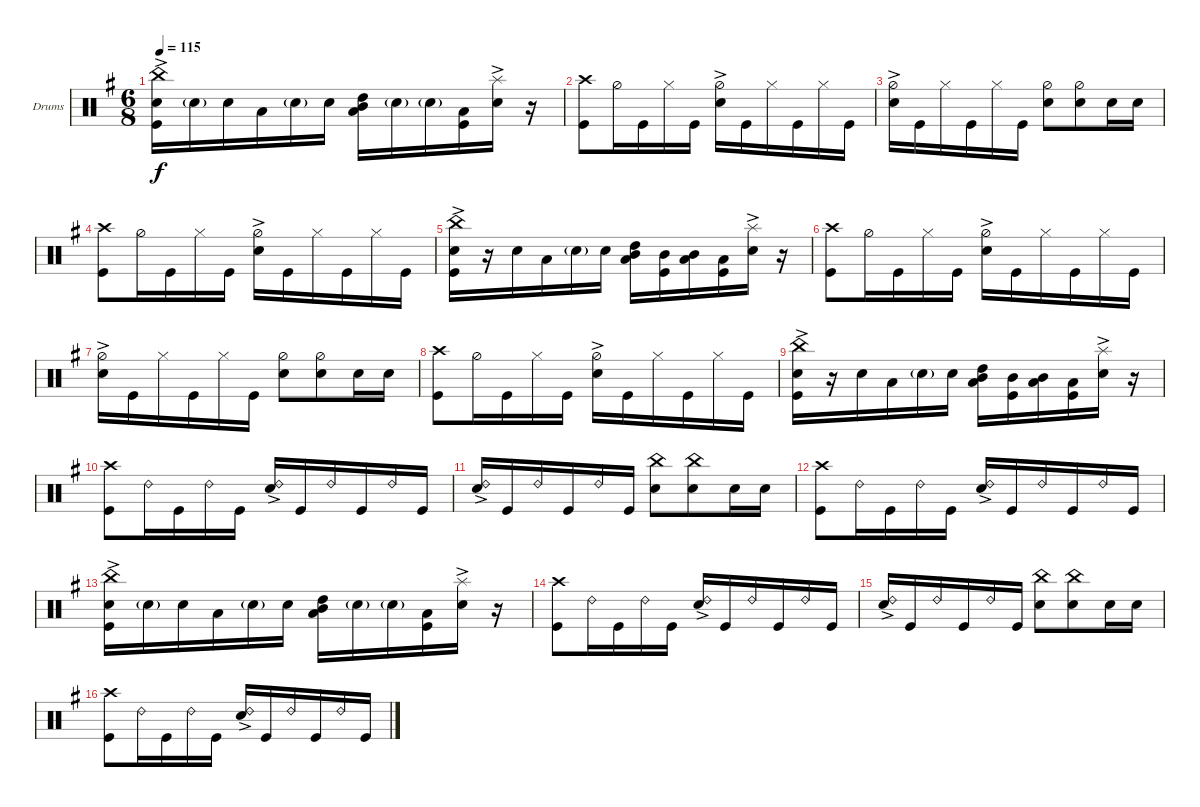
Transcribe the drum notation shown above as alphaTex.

\bracketExtendMode groupsimilarinstruments
\firstSystemTrackNameOrientation horizontal
\otherSystemsTrackNameOrientation horizontal
\track ("Drumkit" "Drums") {instrument percussion}
\staff {score}
\articulation defaults
\ts (6 8)
\tempo 115
\clef neutral
\ks eminor
("Kick (hit)" "Snare (hit) 2"{ac} "China (hit)").16{dy f} "Snare (hit) 2"{g}.16 "Snare (hit) 2".16 "Low Tom (hit)".16 "Snare (hit) 2"{g}.16 "Snare (hit) 2".16 ("High Tom (hit)" "Mid Tom (hit)" "Low Tom (hit)").16 "Snare (hit) 2"{g}.16 "Snare (hit) 2"{g}.16 ("Low Tom (hit)" "Kick (hit)").16 ("Splash (hit)" "Snare (hit) 2"{ac}).16 r.16 |
("Kick (hit)" "Crash high (hit)").8 "Hi-Hat (half)".16 "Kick (hit)".16 "Hi-Hat (closed)".16 "Kick (hit)".16 ("Hi-Hat (half)" "Snare (hit) 2"{ac}).16 "Kick (hit)".16 "Hi-Hat (closed)".16 "Kick (hit)".16 "Hi-Hat (closed)".16 "Kick (hit)".16 |
("Hi-Hat (half)" "Snare (hit) 2"{ac}).16 "Kick (hit)".16 "Hi-Hat (closed)".16 "Kick (hit)".16 "Hi-Hat (closed)".16 "Kick (hit)".16 ("Snare (hit) 2" "Hi-Hat (half)").8 ("Snare (hit) 2" "Hi-Hat (half)").8 "Snare (hit) 2".16 "Snare (hit) 2".16 |
("Kick (hit)" "Crash high (hit)").8 "Hi-Hat (half)".16 "Kick (hit)".16 "Hi-Hat (closed)".16 "Kick (hit)".16 ("Hi-Hat (half)" "Snare (hit) 2"{ac}).16 "Kick (hit)".16 "Hi-Hat (closed)".16 "Kick (hit)".16 "Hi-Hat (closed)".16 "Kick (hit)".16 |
("Kick (hit)" "Snare (hit) 2"{ac} "China (hit)").16 r.16 "Snare (hit) 2".16 "Low Tom (hit)".16 "Snare (hit) 2"{g}.16 "Snare (hit) 2".16 ("High Tom (hit)" "Mid Tom (hit)" "Low Tom (hit)").16 ("Mid Tom (hit)" "Kick (hit)").16 ("Low Tom (hit)" "Mid Tom (hit)").16 ("Low Tom (hit)" "Kick (hit)").16 ("Splash (hit)" "Snare (hit) 2"{ac}).16 r.16 |
("Kick (hit)" "Crash high (hit)").8 "Hi-Hat (half)".16 "Kick (hit)".16 "Hi-Hat (closed)".16 "Kick (hit)".16 ("Hi-Hat (half)" "Snare (hit) 2"{ac}).16 "Kick (hit)".16 "Hi-Hat (closed)".16 "Kick (hit)".16 "Hi-Hat (closed)".16 "Kick (hit)".16 |
("Hi-Hat (half)" "Snare (hit) 2"{ac}).16 "Kick (hit)".16 "Hi-Hat (closed)".16 "Kick (hit)".16 "Hi-Hat (closed)".16 "Kick (hit)".16 ("Snare (hit) 2" "Hi-Hat (half)").8 ("Snare (hit) 2" "Hi-Hat (half)").8 "Snare (hit) 2".16 "Snare (hit) 2".16 |
("Kick (hit)" "Crash high (hit)").8 "Hi-Hat (half)".16 "Kick (hit)".16 "Hi-Hat (closed)".16 "Kick (hit)".16 ("Hi-Hat (half)" "Snare (hit) 2"{ac}).16 "Kick (hit)".16 "Hi-Hat (closed)".16 "Kick (hit)".16 "Hi-Hat (closed)".16 "Kick (hit)".16 |
("Kick (hit)" "Snare (hit) 2"{ac} "China (hit)").16 r.16 "Snare (hit) 2".16 "Low Tom (hit)".16 "Snare (hit) 2"{g}.16 "Snare (hit) 2".16 ("High Tom (hit)" "Mid Tom (hit)" "Low Tom (hit)").16 ("Mid Tom (hit)" "Kick (hit)").16 ("Low Tom (hit)" "Mid Tom (hit)").16 ("Low Tom (hit)" "Kick (hit)").16 ("Splash (hit)" "Snare (hit) 2"{ac}).16 r.16 |
("Kick (hit)" "Crash high (hit)").8 "Ride (bell) 2".16 "Kick (hit)".16 "Ride (bell) 2".16 "Kick (hit)".16 ("Snare (hit) 2"{ac} "Ride (bell) 2").16 "Kick (hit)".16 "Ride (bell) 2".16 "Kick (hit)".16 "Ride (bell) 2".16 "Kick (hit)".16 |
("Snare (hit) 2"{ac} "Ride (bell) 2").16 "Kick (hit)".16 "Ride (bell) 2".16 "Kick (hit)".16 "Ride (bell) 2".16 "Kick (hit)".16 ("Snare (hit) 2" "China (hit)").8 ("Snare (hit) 2" "China (hit)").8 "Snare (hit) 2".16 "Snare (hit) 2".16 |
("Kick (hit)" "Crash high (hit)").8 "Ride (bell) 2".16 "Kick (hit)".16 "Ride (bell) 2".16 "Kick (hit)".16 ("Snare (hit) 2"{ac} "Ride (bell) 2").16 "Kick (hit)".16 "Ride (bell) 2".16 "Kick (hit)".16 "Ride (bell) 2".16 "Kick (hit)".16 |
("Kick (hit)" "Snare (hit) 2"{ac} "China (hit)").16 "Snare (hit) 2"{g}.16 "Snare (hit) 2".16 "Low Tom (hit)".16 "Snare (hit) 2"{g}.16 "Snare (hit) 2".16 ("High Tom (hit)" "Mid Tom (hit)" "Low Tom (hit)").16 "Snare (hit) 2"{g}.16 "Snare (hit) 2"{g}.16 ("Low Tom (hit)" "Kick (hit)").16 ("Splash (hit)" "Snare (hit) 2"{ac}).16 r.16 |
("Kick (hit)" "Crash high (hit)").8 "Ride (bell) 2".16 "Kick (hit)".16 "Ride (bell) 2".16 "Kick (hit)".16 ("Snare (hit) 2"{ac} "Ride (bell) 2").16 "Kick (hit)".16 "Ride (bell) 2".16 "Kick (hit)".16 "Ride (bell) 2".16 "Kick (hit)".16 |
("Snare (hit) 2"{ac} "Ride (bell) 2").16 "Kick (hit)".16 "Ride (bell) 2".16 "Kick (hit)".16 "Ride (bell) 2".16 "Kick (hit)".16 ("Snare (hit) 2" "China (hit)").8 ("Snare (hit) 2" "China (hit)").8 "Snare (hit) 2".16 "Snare (hit) 2".16 |
("Kick (hit)" "Crash high (hit)").8 "Ride (bell) 2".16 "Kick (hit)".16 "Ride (bell) 2".16 "Kick (hit)".16 ("Snare (hit) 2"{ac} "Ride (bell) 2").16 "Kick (hit)".16 "Ride (bell) 2".16 "Kick (hit)".16 "Ride (bell) 2".16 "Kick (hit)".16
